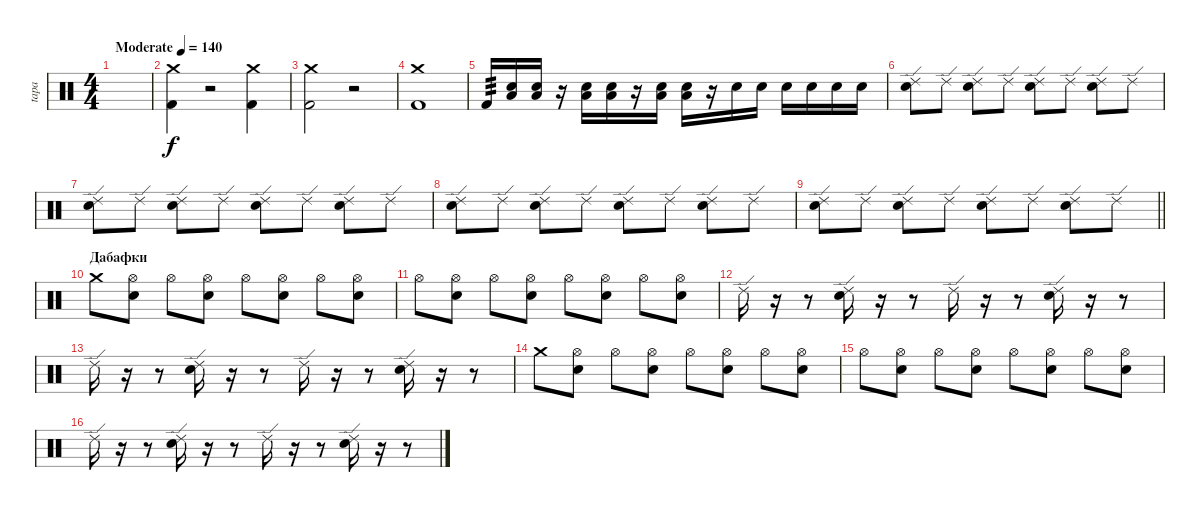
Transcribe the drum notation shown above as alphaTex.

\track ("tapa" "tapa") {instrument percussion}
\staff {score}
\articulation defaults
\ts (4 4)
\tempo (140 "Moderate")
\clef neutral
\ks c
|
("Crash medium (hit)" "Kick (hit) 2").4 r.2 ("Crash medium (hit)" "Kick (hit) 2").4 |
("Kick (hit) 2" "Crash medium (hit)").2 r.2 |
("Kick (hit) 2" "Crash medium (hit)").1 |
"Kick (hit) 2".16{tp 3} ("Low Floor Tom (hit)" "Snare (hit) 2").16 ("Low Floor Tom (hit)" "Snare (hit) 2").16 r.16 ("Low Floor Tom (hit)" "Snare (hit) 2").16 ("Snare (hit) 2" "Low Floor Tom (hit)").16 r.16 ("Low Floor Tom (hit)" "Snare (hit) 2").16 ("Low Floor Tom (hit)" "Snare (hit) 2").16 r.16 "Snare (hit) 2".16 "Snare (hit) 2".16 "Snare (hit) 2".16 "Snare (hit) 2".16 "Snare (hit) 2".16 "Snare (hit) 2".16 |
("Ride (edge) 2" "Snare (hit) 2").8 "Ride (edge) 2".8 ("Ride (edge) 2" "Snare (hit) 2").8 "Ride (edge) 2".8 ("Ride (edge) 2" "Snare (hit) 2").8 "Ride (edge) 2".8 ("Ride (edge) 2" "Snare (hit) 2").8 "Ride (edge) 2".8 |
("Ride (edge) 2" "Snare (hit) 2").8 "Ride (edge) 2".8 ("Ride (edge) 2" "Snare (hit) 2").8 "Ride (edge) 2".8 ("Ride (edge) 2" "Snare (hit) 2").8 "Ride (edge) 2".8 ("Ride (edge) 2" "Snare (hit) 2").8 "Ride (edge) 2".8 |
("Ride (edge) 2" "Snare (hit) 2").8 "Ride (edge) 2".8 ("Ride (edge) 2" "Snare (hit) 2").8 "Ride (edge) 2".8 ("Ride (edge) 2" "Snare (hit) 2").8 "Ride (edge) 2".8 ("Ride (edge) 2" "Snare (hit) 2").8 "Ride (edge) 2".8 |
\barLineRight lightlight
("Ride (edge) 2" "Snare (hit) 2").8 "Ride (edge) 2".8 ("Ride (edge) 2" "Snare (hit) 2").8 "Ride (edge) 2".8 ("Ride (edge) 2" "Snare (hit) 2").8 "Ride (edge) 2".8 ("Ride (edge) 2" "Snare (hit) 2").8 "Ride (edge) 2".8 |
\section ("" "Дабафки")
"Crash medium (hit)".8 ("Hi-Hat (open)" "Snare (hit) 2").8 "Hi-Hat (open)".8 ("Hi-Hat (open)" "Snare (hit) 2").8 "Hi-Hat (open)".8 ("Hi-Hat (open)" "Snare (hit) 2").8 "Hi-Hat (open)".8 ("Hi-Hat (open)" "Snare (hit) 2").8 |
"Hi-Hat (open)".8 ("Hi-Hat (open)" "Snare (hit) 2").8 "Hi-Hat (open)".8 ("Hi-Hat (open)" "Snare (hit) 2").8 "Hi-Hat (open)".8 ("Hi-Hat (open)" "Snare (hit) 2").8 "Hi-Hat (open)".8 ("Hi-Hat (open)" "Snare (hit) 2").8 |
"Ride (edge) 2".16 r.16 r.8 ("Ride (edge) 2" "Snare (hit) 2").16 r.16 r.8 "Ride (edge) 2".16 r.16 r.8 ("Ride (edge) 2" "Snare (hit) 2").16 r.16 r.8 |
"Ride (edge) 2".16 r.16 r.8 ("Ride (edge) 2" "Snare (hit) 2").16 r.16 r.8 "Ride (edge) 2".16 r.16 r.8 ("Ride (edge) 2" "Snare (hit) 2").16 r.16 r.8 |
"Crash medium (hit)".8 ("Hi-Hat (open)" "Snare (hit) 2").8 "Hi-Hat (open)".8 ("Hi-Hat (open)" "Snare (hit) 2").8 "Hi-Hat (open)".8 ("Hi-Hat (open)" "Snare (hit) 2").8 "Hi-Hat (open)".8 ("Hi-Hat (open)" "Snare (hit) 2").8 |
"Hi-Hat (open)".8 ("Hi-Hat (open)" "Snare (hit) 2").8 "Hi-Hat (open)".8 ("Hi-Hat (open)" "Snare (hit) 2").8 "Hi-Hat (open)".8 ("Hi-Hat (open)" "Snare (hit) 2").8 "Hi-Hat (open)".8 ("Hi-Hat (open)" "Snare (hit) 2").8 |
"Ride (edge) 2".16 r.16 r.8 ("Ride (edge) 2" "Snare (hit) 2").16 r.16 r.8 "Ride (edge) 2".16 r.16 r.8 ("Ride (edge) 2" "Snare (hit) 2").16 r.16 r.8
